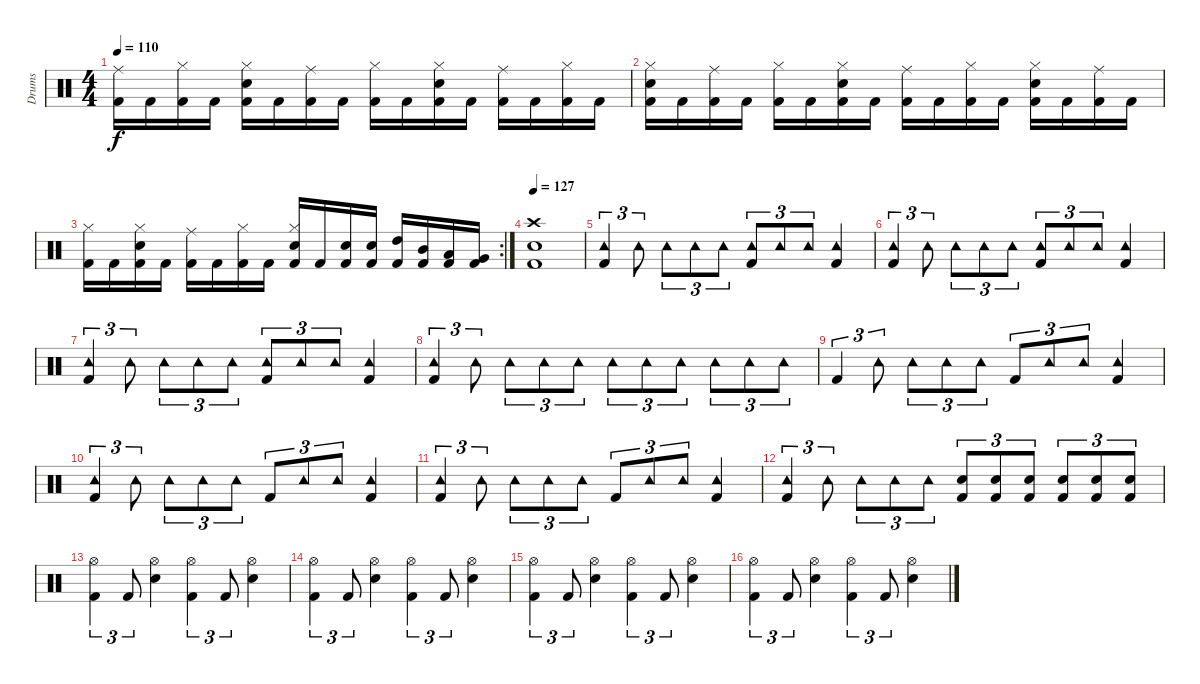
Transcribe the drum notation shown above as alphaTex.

\track ("Drums" "Drums") {instrument percussion}
\staff {score}
\articulation defaults
\ts (4 4)
\tempo 110
\clef neutral
\ks c
("Kick (hit) 2" "Ride (middle)").16{dy f} "Kick (hit) 2".16 ("Kick (hit) 2" "Hi-Hat (closed)").16 "Kick (hit) 2".16 ("Kick (hit) 2" "Hi-Hat (closed)" "Electric Snare (hit)").16 "Kick (hit) 2".16 ("Kick (hit) 2" "Ride (middle)").16 "Kick (hit) 2".16 ("Kick (hit) 2" "Hi-Hat (closed)").16 "Kick (hit) 2".16 ("Kick (hit) 2" "Hi-Hat (closed)" "Electric Snare (hit)").16 "Kick (hit) 2".16 ("Kick (hit) 2" "Ride (middle)").16 "Kick (hit) 2".16 ("Kick (hit) 2" "Hi-Hat (closed)").16 "Kick (hit) 2".16 |
("Kick (hit) 2" "Hi-Hat (closed)" "Electric Snare (hit)").16 "Kick (hit) 2".16 ("Kick (hit) 2" "Ride (middle)").16 "Kick (hit) 2".16 ("Kick (hit) 2" "Hi-Hat (closed)").16 "Kick (hit) 2".16 ("Kick (hit) 2" "Hi-Hat (closed)" "Electric Snare (hit)").16 "Kick (hit) 2".16 ("Kick (hit) 2" "Ride (middle)").16 "Kick (hit) 2".16 ("Kick (hit) 2" "Hi-Hat (closed)").16 "Kick (hit) 2".16 ("Kick (hit) 2" "Hi-Hat (closed)" "Electric Snare (hit)").16 "Kick (hit) 2".16 ("Kick (hit) 2" "Ride (middle)").16 "Kick (hit) 2".16 |
\rc 2
("Kick (hit) 2" "Hi-Hat (closed)").16 "Kick (hit) 2".16 ("Kick (hit) 2" "Hi-Hat (closed)" "Electric Snare (hit)").16 "Kick (hit) 2".16 ("Kick (hit) 2" "Ride (middle)").16 "Kick (hit) 2".16 ("Kick (hit) 2" "Hi-Hat (closed)").16 "Kick (hit) 2".16 ("Kick (hit) 2" "Hi-Hat (closed)" "Electric Snare (hit)").16 "Kick (hit) 2".16 ("Kick (hit) 2" "Electric Snare (hit)").16 ("Kick (hit) 2" "Electric Snare (hit)").16 ("Kick (hit) 2" "High Tom (hit)").16 ("Kick (hit) 2" "Mid Tom (hit)").16 ("Kick (hit) 2" "Low Tom (hit)").16 ("Kick (hit) 2" "Very Low Tom (hit)").16 |
\tempo 127
("Kick (hit) 2" "Electric Snare (hit)" "Crash high (hit)").1 |
("Tambourine (hit)" "Kick (hit) 2").4{tu (3 2)} "Tambourine (hit)".8{tu (3 2)} "Tambourine (hit)".8{tu (3 2)} "Tambourine (hit)".8{tu (3 2)} "Tambourine (hit)".8{tu (3 2)} ("Tambourine (hit)" "Kick (hit) 2").8{tu (3 2)} "Tambourine (hit)".8{tu (3 2)} "Tambourine (hit)".8{tu (3 2)} ("Tambourine (hit)" "Kick (hit) 2").4 |
("Tambourine (hit)" "Kick (hit) 2").4{tu (3 2)} "Tambourine (hit)".8{tu (3 2)} "Tambourine (hit)".8{tu (3 2)} "Tambourine (hit)".8{tu (3 2)} "Tambourine (hit)".8{tu (3 2)} ("Tambourine (hit)" "Kick (hit) 2").8{tu (3 2)} "Tambourine (hit)".8{tu (3 2)} "Tambourine (hit)".8{tu (3 2)} ("Tambourine (hit)" "Kick (hit) 2").4 |
("Tambourine (hit)" "Kick (hit) 2").4{tu (3 2)} "Tambourine (hit)".8{tu (3 2)} "Tambourine (hit)".8{tu (3 2)} "Tambourine (hit)".8{tu (3 2)} "Tambourine (hit)".8{tu (3 2)} ("Tambourine (hit)" "Kick (hit) 2").8{tu (3 2)} "Tambourine (hit)".8{tu (3 2)} "Tambourine (hit)".8{tu (3 2)} ("Tambourine (hit)" "Kick (hit) 2").4 |
("Tambourine (hit)" "Kick (hit) 2").4{tu (3 2)} "Tambourine (hit)".8{tu (3 2)} "Tambourine (hit)".8{tu (3 2)} "Tambourine (hit)".8{tu (3 2)} "Tambourine (hit)".8{tu (3 2)} "Tambourine (hit)".8{tu (3 2)} "Tambourine (hit)".8{tu (3 2)} "Tambourine (hit)".8{tu (3 2)} "Tambourine (hit)".8{tu (3 2)} "Tambourine (hit)".8{tu (3 2)} "Tambourine (hit)".8{tu (3 2)} |
"Kick (hit) 2".4{tu (3 2)} "Tambourine (hit)".8{tu (3 2)} "Tambourine (hit)".8{tu (3 2)} "Tambourine (hit)".8{tu (3 2)} "Tambourine (hit)".8{tu (3 2)} "Kick (hit) 2".8{tu (3 2)} "Tambourine (hit)".8{tu (3 2)} "Tambourine (hit)".8{tu (3 2)} ("Tambourine (hit)" "Kick (hit) 2").4 |
("Tambourine (hit)" "Kick (hit) 2").4{tu (3 2)} "Tambourine (hit)".8{tu (3 2)} "Tambourine (hit)".8{tu (3 2)} "Tambourine (hit)".8{tu (3 2)} "Tambourine (hit)".8{tu (3 2)} "Kick (hit) 2".8{tu (3 2)} "Tambourine (hit)".8{tu (3 2)} "Tambourine (hit)".8{tu (3 2)} ("Tambourine (hit)" "Kick (hit) 2").4 |
("Tambourine (hit)" "Kick (hit) 2").4{tu (3 2)} "Tambourine (hit)".8{tu (3 2)} "Tambourine (hit)".8{tu (3 2)} "Tambourine (hit)".8{tu (3 2)} "Tambourine (hit)".8{tu (3 2)} "Kick (hit) 2".8{tu (3 2)} "Tambourine (hit)".8{tu (3 2)} "Tambourine (hit)".8{tu (3 2)} ("Tambourine (hit)" "Kick (hit) 2").4 |
("Tambourine (hit)" "Kick (hit) 2").4{tu (3 2)} "Tambourine (hit)".8{tu (3 2)} "Tambourine (hit)".8{tu (3 2)} "Tambourine (hit)".8{tu (3 2)} "Tambourine (hit)".8{tu (3 2)} ("Electric Snare (hit)" "Kick (hit) 2").8{tu (3 2)} ("Electric Snare (hit)" "Kick (hit) 2").8{tu (3 2)} ("Electric Snare (hit)" "Kick (hit) 2").8{tu (3 2)} ("Electric Snare (hit)" "Kick (hit) 2").8{tu (3 2)} ("Electric Snare (hit)" "Kick (hit) 2").8{tu (3 2)} ("Electric Snare (hit)" "Kick (hit) 2").8{tu (3 2)} |
("Kick (hit) 2" "Hi-Hat (open)").4{tu (3 2)} "Kick (hit) 2".8{tu (3 2)} ("Electric Snare (hit)" "Hi-Hat (open)").4 ("Kick (hit) 2" "Hi-Hat (open)").4{tu (3 2)} "Kick (hit) 2".8{tu (3 2)} ("Electric Snare (hit)" "Hi-Hat (open)").4 |
("Kick (hit) 2" "Hi-Hat (open)").4{tu (3 2)} "Kick (hit) 2".8{tu (3 2)} ("Electric Snare (hit)" "Hi-Hat (open)").4 ("Kick (hit) 2" "Hi-Hat (open)").4{tu (3 2)} "Kick (hit) 2".8{tu (3 2)} ("Electric Snare (hit)" "Hi-Hat (open)").4 |
("Kick (hit) 2" "Hi-Hat (open)").4{tu (3 2)} "Kick (hit) 2".8{tu (3 2)} ("Electric Snare (hit)" "Hi-Hat (open)").4 ("Kick (hit) 2" "Hi-Hat (open)").4{tu (3 2)} "Kick (hit) 2".8{tu (3 2)} ("Electric Snare (hit)" "Hi-Hat (open)").4 |
("Kick (hit) 2" "Hi-Hat (open)").4{tu (3 2)} "Kick (hit) 2".8{tu (3 2)} ("Electric Snare (hit)" "Hi-Hat (open)").4 ("Kick (hit) 2" "Hi-Hat (open)").4{tu (3 2)} "Kick (hit) 2".8{tu (3 2)} ("Electric Snare (hit)" "Hi-Hat (open)").4
